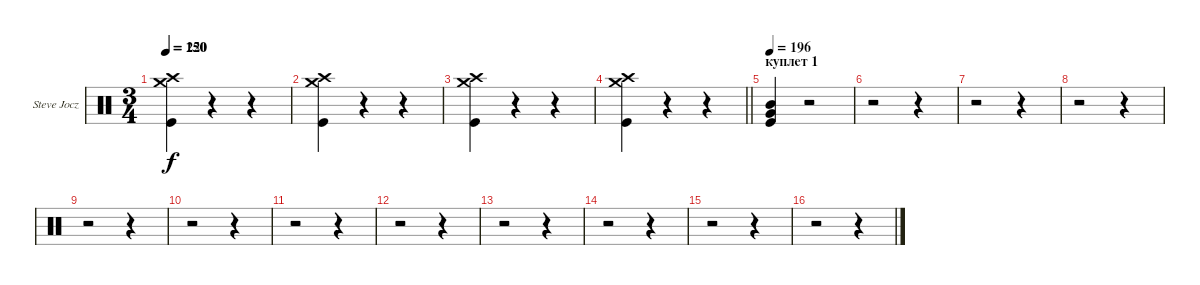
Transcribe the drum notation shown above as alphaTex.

\defaultSystemsLayout 4
\bracketExtendMode groupsimilarinstruments
\firstSystemTrackNameOrientation horizontal
\otherSystemsTrackNameOrientation horizontal
\track ("Steve Jocz " "Steve Jocz") {instrument percussion}
\staff {score}
\articulation defaults
\ts (3 4)
\tempo 150
\tempo (220 0.00625)
\clef neutral
\scale
0.472222
\ks c
("Crash high (hit)" "Crash medium (hit)" "Kick (hit)").4{dy f} r.4 r.4 |
\scale
0.333333 ("Crash high (hit)" "Crash medium (hit)" "Kick (hit)").4 r.4 r.4 |
\scale
0.333333 ("Crash high (hit)" "Crash medium (hit)" "Kick (hit)").4 r.4 r.4 |
\scale
0.333333
\barLineRight lightlight
("Crash high (hit)" "Crash medium (hit)" "Kick (hit)").4 r.4 r.4 |
\section ("" "куплет 1")
\tempo (196 0.00625)
\scale
0.333333 ("Mid Tom (hit)" "Very Low Tom (hit)" "Kick (hit)").4 r.2 |
\scale
0.333333 r.2 r.4 |
\scale
0.333333 r.2 r.4 |
\scale
0.333333 r.2 r.4 |
\scale
0.333333 r.2 r.4 |
\scale
0.333333 r.2 r.4 |
\scale
0.333333 r.2 r.4 |
\scale
0.333333 r.2 r.4 |
\scale
0.333333 r.2 r.4 |
\scale
0.333333 r.2 r.4 |
\scale
0.333333 r.2 r.4 |
\scale
0.333333 r.2 r.4
